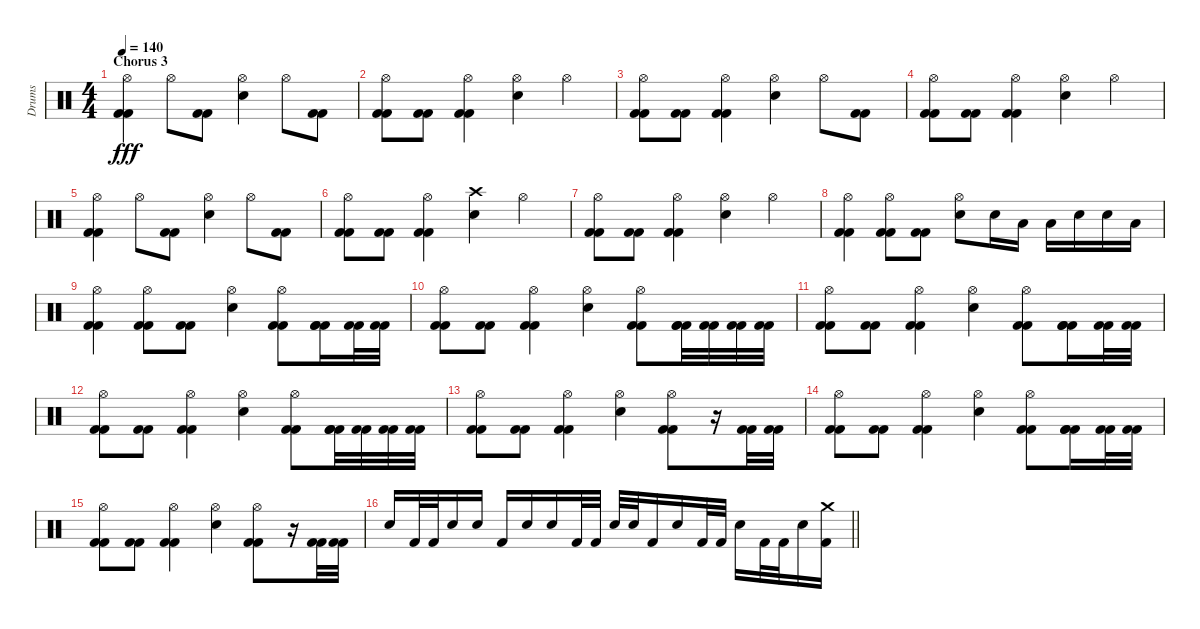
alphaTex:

\track ("Drums" "Drums") {instrument percussion}
\staff {score}
\articulation defaults
\ts (4 4)
\section ("" "Chorus 3")
\tempo 140
\clef neutral
\ks c
("Kick (hit) 2" "Kick (hit) 2" "Hi-Hat (open)").4{dy fff} "Hi-Hat (open)".8 ("Kick (hit) 2" "Kick (hit) 2").8 ("Snare (hit) 2" "Hi-Hat (open)").4 "Hi-Hat (open)".8 ("Kick (hit) 2" "Kick (hit) 2").8 |
("Kick (hit) 2" "Kick (hit) 2" "Hi-Hat (open)").8 ("Kick (hit) 2" "Kick (hit) 2").8 ("Kick (hit) 2" "Kick (hit) 2" "Hi-Hat (open)").4 ("Snare (hit) 2" "Hi-Hat (open)").4 "Hi-Hat (open)".4 |
("Kick (hit) 2" "Hi-Hat (open)" "Kick (hit) 2").8 ("Kick (hit) 2" "Kick (hit) 2").8 ("Kick (hit) 2" "Hi-Hat (open)" "Kick (hit) 2").4 ("Snare (hit) 2" "Hi-Hat (open)").4 "Hi-Hat (open)".8 ("Kick (hit) 2" "Kick (hit) 2").8 |
("Kick (hit) 2" "Hi-Hat (open)" "Kick (hit) 2").8 ("Kick (hit) 2" "Kick (hit) 2").8 ("Kick (hit) 2" "Hi-Hat (open)" "Kick (hit) 2").4 ("Snare (hit) 2" "Hi-Hat (open)").4 "Hi-Hat (open)".4 |
("Kick (hit) 2" "Kick (hit) 2" "Hi-Hat (open)").4 "Hi-Hat (open)".8 ("Kick (hit) 2" "Kick (hit) 2").8 ("Snare (hit) 2" "Hi-Hat (open)").4 "Hi-Hat (open)".8 ("Kick (hit) 2" "Kick (hit) 2").8 |
("Kick (hit) 2" "Kick (hit) 2" "Hi-Hat (open)").8 ("Kick (hit) 2" "Kick (hit) 2").8 ("Kick (hit) 2" "Kick (hit) 2" "Hi-Hat (open)").4 ("Snare (hit) 2" "Crash high (hit)").4 "Hi-Hat (open)".4 |
("Kick (hit) 2" "Hi-Hat (open)" "Kick (hit) 2").8 ("Kick (hit) 2" "Kick (hit) 2").8 ("Kick (hit) 2" "Hi-Hat (open)" "Kick (hit) 2").4 ("Snare (hit) 2" "Hi-Hat (open)").4 "Hi-Hat (open)".4 |
("Kick (hit) 2" "Hi-Hat (open)" "Kick (hit) 2").4 ("Hi-Hat (open)" "Kick (hit) 2" "Kick (hit) 2").8 ("Kick (hit) 2" "Kick (hit) 2").8 ("Snare (hit) 2" "Hi-Hat (open)").8 "Snare (hit) 2".16 "Low Tom (hit)".16 "Low Tom (hit)".16 "Snare (hit) 2".16 "Snare (hit) 2".16 "Low Tom (hit)".16 |
("Kick (hit) 2" "Kick (hit) 2" "Hi-Hat (open)").4 ("Kick (hit) 2" "Kick (hit) 2" "Hi-Hat (open)").8 ("Kick (hit) 2" "Kick (hit) 2").8 ("Snare (hit) 2" "Hi-Hat (open)").4 ("Kick (hit) 2" "Kick (hit) 2" "Hi-Hat (open)").8 ("Kick (hit) 2" "Kick (hit) 2" "Kick (hit) 2").16 ("Kick (hit) 2" "Kick (hit) 2").32 ("Kick (hit) 2" "Kick (hit) 2").32 |
("Kick (hit) 2" "Kick (hit) 2" "Hi-Hat (open)").8 ("Kick (hit) 2" "Kick (hit) 2").8 ("Kick (hit) 2" "Kick (hit) 2" "Hi-Hat (open)").4 ("Snare (hit) 2" "Hi-Hat (open)").4 ("Kick (hit) 2" "Kick (hit) 2" "Hi-Hat (open)").8 ("Kick (hit) 2" "Kick (hit) 2" "Kick (hit) 2").32 ("Kick (hit) 2" "Kick (hit) 2").32 ("Kick (hit) 2" "Kick (hit) 2").32 ("Kick (hit) 2" "Kick (hit) 2").32 |
("Kick (hit) 2" "Kick (hit) 2" "Hi-Hat (open)").8 ("Kick (hit) 2" "Kick (hit) 2").8 ("Kick (hit) 2" "Kick (hit) 2" "Hi-Hat (open)").4 ("Snare (hit) 2" "Hi-Hat (open)").4 ("Kick (hit) 2" "Kick (hit) 2" "Hi-Hat (open)").8 ("Kick (hit) 2" "Kick (hit) 2" "Kick (hit) 2").16 ("Kick (hit) 2" "Kick (hit) 2").32 ("Kick (hit) 2" "Kick (hit) 2").32 |
("Kick (hit) 2" "Kick (hit) 2" "Hi-Hat (open)").8 ("Kick (hit) 2" "Kick (hit) 2").8 ("Kick (hit) 2" "Kick (hit) 2" "Hi-Hat (open)").4 ("Snare (hit) 2" "Hi-Hat (open)").4 ("Kick (hit) 2" "Kick (hit) 2" "Hi-Hat (open)").8 ("Kick (hit) 2" "Kick (hit) 2" "Kick (hit) 2").32 ("Kick (hit) 2" "Kick (hit) 2").32 ("Kick (hit) 2" "Kick (hit) 2").32 ("Kick (hit) 2" "Kick (hit) 2").32 |
("Kick (hit) 2" "Kick (hit) 2" "Hi-Hat (open)").8 ("Kick (hit) 2" "Kick (hit) 2").8 ("Kick (hit) 2" "Kick (hit) 2" "Hi-Hat (open)").4 ("Snare (hit) 2" "Hi-Hat (open)").4 ("Kick (hit) 2" "Kick (hit) 2" "Hi-Hat (open)").8 r.16 ("Kick (hit) 2" "Kick (hit) 2").32 ("Kick (hit) 2" "Kick (hit) 2").32 |
("Kick (hit) 2" "Kick (hit) 2" "Hi-Hat (open)").8 ("Kick (hit) 2" "Kick (hit) 2").8 ("Kick (hit) 2" "Kick (hit) 2" "Hi-Hat (open)").4 ("Snare (hit) 2" "Hi-Hat (open)").4 ("Kick (hit) 2" "Kick (hit) 2" "Hi-Hat (open)").8 ("Kick (hit) 2" "Kick (hit) 2" "Kick (hit) 2").16 ("Kick (hit) 2" "Kick (hit) 2").32 ("Kick (hit) 2" "Kick (hit) 2").32 |
("Kick (hit) 2" "Kick (hit) 2" "Hi-Hat (open)").8 ("Kick (hit) 2" "Kick (hit) 2").8 ("Kick (hit) 2" "Kick (hit) 2" "Hi-Hat (open)").4 ("Snare (hit) 2" "Hi-Hat (open)").4 ("Kick (hit) 2" "Kick (hit) 2" "Hi-Hat (open)").8 r.16 ("Kick (hit) 2" "Kick (hit) 2").32 ("Kick (hit) 2" "Kick (hit) 2").32 |
\barLineRight lightlight "Snare (hit) 2".16 "Kick (hit) 2".32 "Kick (hit) 2".32 "Snare (hit) 2".16 "Snare (hit) 2".16 "Kick (hit) 2".16 "Snare (hit) 2".16 "Snare (hit) 2".16 "Kick (hit) 2".32 "Kick (hit) 2".32 "Snare (hit) 2".32 "Snare (hit) 2".32 "Kick (hit) 2".16 "Snare (hit) 2".16 "Kick (hit) 2".32 "Kick (hit) 2".32 "Snare (hit) 2".16 "Kick (hit) 2".32 "Kick (hit) 2".32 "Snare (hit) 2".16
("Crash medium (hit)" "Kick (hit) 2").16
